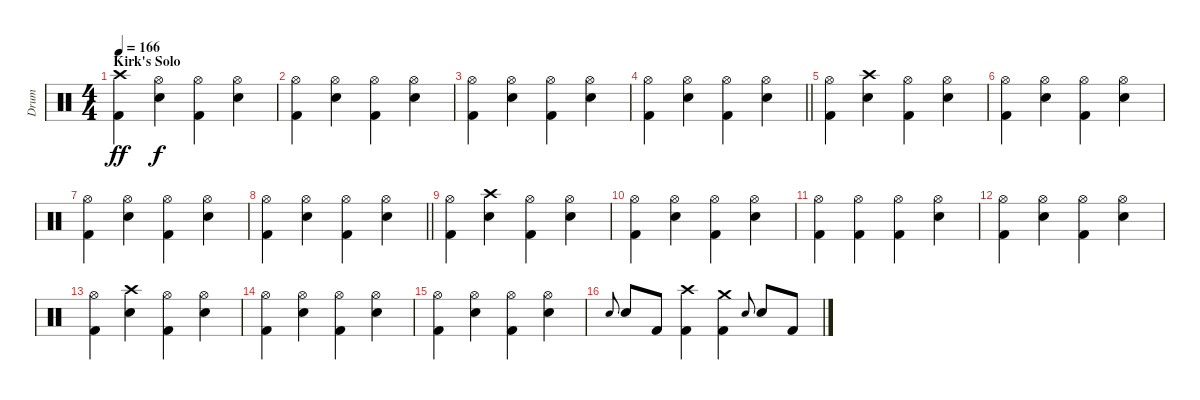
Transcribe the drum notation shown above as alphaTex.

\track ("Drum" "Drum") {instrument percussion}
\staff {score}
\articulation defaults
\ts (4 4)
\section ("" "Kirk's Solo")
\tempo 166
\clef neutral
\ks c
("Crash high (hit)" "Kick (hit) 2").4{dy ff} ("Hi-Hat (open)" "Snare (hit) 2").4{dy f} ("Hi-Hat (open)" "Kick (hit) 2").4 ("Hi-Hat (open)" "Snare (hit) 2").4 |
("Hi-Hat (open)" "Kick (hit) 2").4 ("Hi-Hat (open)" "Snare (hit) 2").4 ("Hi-Hat (open)" "Kick (hit) 2").4 ("Hi-Hat (open)" "Snare (hit) 2").4 |
("Hi-Hat (open)" "Kick (hit) 2").4 ("Hi-Hat (open)" "Snare (hit) 2").4 ("Hi-Hat (open)" "Kick (hit) 2").4 ("Hi-Hat (open)" "Snare (hit) 2").4 |
\barLineRight lightlight
("Hi-Hat (open)" "Kick (hit) 2").4 ("Hi-Hat (open)" "Snare (hit) 2").4 ("Hi-Hat (open)" "Kick (hit) 2").4 ("Hi-Hat (open)" "Snare (hit) 2").4 |
("Hi-Hat (open)" "Kick (hit) 2").4 ("Crash high (hit)" "Snare (hit) 2").4 ("Hi-Hat (open)" "Kick (hit) 2").4 ("Hi-Hat (open)" "Snare (hit) 2").4 |
("Hi-Hat (open)" "Kick (hit) 2").4 ("Hi-Hat (open)" "Snare (hit) 2").4 ("Hi-Hat (open)" "Kick (hit) 2").4 ("Hi-Hat (open)" "Snare (hit) 2").4 |
("Hi-Hat (open)" "Kick (hit) 2").4 ("Hi-Hat (open)" "Snare (hit) 2").4 ("Hi-Hat (open)" "Kick (hit) 2").4 ("Hi-Hat (open)" "Snare (hit) 2").4 |
\barLineRight lightlight
("Hi-Hat (open)" "Kick (hit) 2").4 ("Hi-Hat (open)" "Snare (hit) 2").4 ("Hi-Hat (open)" "Kick (hit) 2").4 ("Hi-Hat (open)" "Snare (hit) 2").4 |
("Hi-Hat (open)" "Kick (hit) 2").4 ("Crash high (hit)" "Snare (hit) 2").4 ("Hi-Hat (open)" "Kick (hit) 2").4 ("Hi-Hat (open)" "Snare (hit) 2").4 |
("Hi-Hat (open)" "Kick (hit) 2").4 ("Hi-Hat (open)" "Snare (hit) 2").4 ("Hi-Hat (open)" "Kick (hit) 2").4 ("Hi-Hat (open)" "Snare (hit) 2").4 |
("Hi-Hat (open)" "Kick (hit) 2").4 ("Hi-Hat (open)" "Kick (hit) 2").4 ("Hi-Hat (open)" "Kick (hit) 2").4 ("Hi-Hat (open)" "Snare (hit) 2").4 |
("Hi-Hat (open)" "Kick (hit) 2").4 ("Hi-Hat (open)" "Snare (hit) 2").4 ("Hi-Hat (open)" "Kick (hit) 2").4 ("Hi-Hat (open)" "Snare (hit) 2").4 |
("Hi-Hat (open)" "Kick (hit) 2").4 ("Crash high (hit)" "Snare (hit) 2").4 ("Hi-Hat (open)" "Kick (hit) 2").4 ("Hi-Hat (open)" "Snare (hit) 2").4 |
("Hi-Hat (open)" "Kick (hit) 2").4 ("Hi-Hat (open)" "Snare (hit) 2").4 ("Hi-Hat (open)" "Kick (hit) 2").4 ("Hi-Hat (open)" "Snare (hit) 2").4 |
("Hi-Hat (open)" "Kick (hit) 2").4 ("Hi-Hat (open)" "Snare (hit) 2").4 ("Hi-Hat (open)" "Kick (hit) 2").4 ("Hi-Hat (open)" "Snare (hit) 2").4 |
"Snare (hit) 2".8{gr onbeat} "Snare (hit) 2".8 "Kick (hit) 2".8 ("Crash high (hit)" "Kick (hit) 2").4 ("Crash medium (hit)" "Kick (hit) 2").4 "Snare (hit) 2".8{gr onbeat} "Snare (hit) 2".8 "Kick (hit) 2".8
